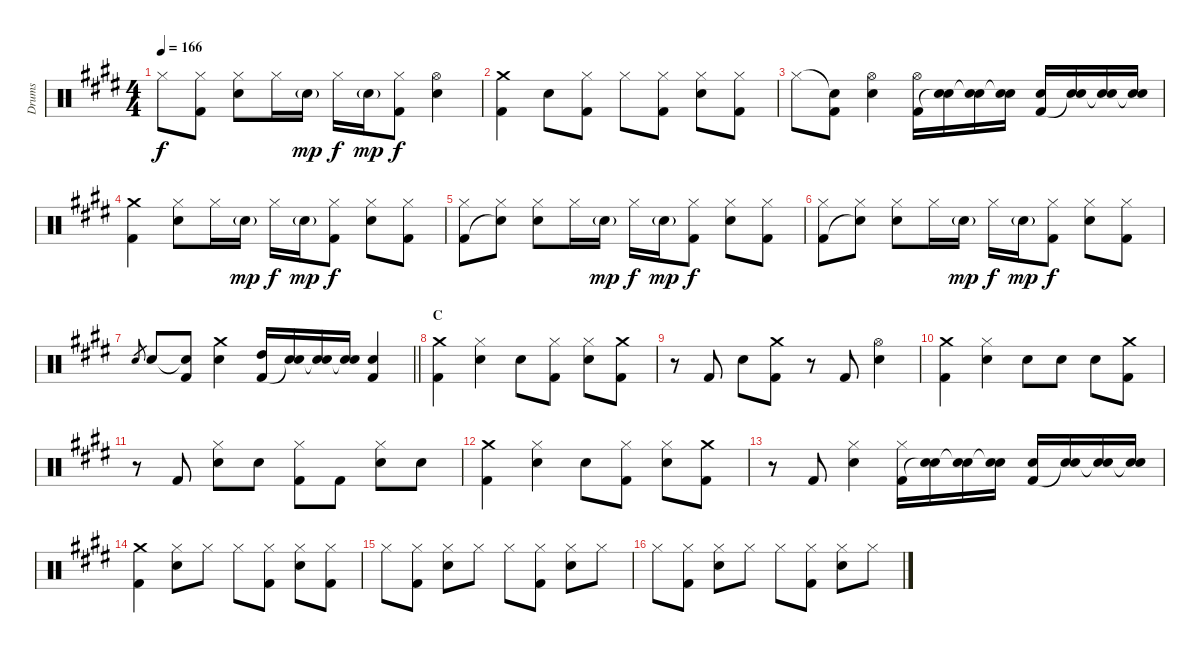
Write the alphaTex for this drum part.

\track ("Drums" "Drums") {instrument percussion}
\staff {score}
\articulation defaults
\ts (4 4)
\tempo 166
\clef neutral
\ks e "Hi-Hat (closed)".8{dy f}
("Hi-Hat (closed)" "Kick (hit) 2").8 ("Hi-Hat (closed)" "Snare (hit) 2").8 "Hi-Hat (closed)".16 "Snare (hit) 2"{g}.16{dy mp} "Hi-Hat (closed)".16{dy f} "Snare (hit) 2"{g}.16{dy mp} ("Hi-Hat (closed)" "Kick (hit) 2").8{dy f} ("Hi-Hat (open)" "Snare (hit) 2").4 |
("Crash medium (hit)" "Kick (hit) 2").4 "Snare (hit) 2".8 ("Hi-Hat (closed)" "Kick (hit) 2").8 "Hi-Hat (closed)".8 ("Hi-Hat (closed)" "Kick (hit) 2").8 ("Hi-Hat (closed)" "Snare (hit) 2").8 ("Hi-Hat (closed)" "Kick (hit) 2").8 |
"Hi-Hat (closed)".8 ("Snare (hit)"{t} "Kick (hit) 2").8 ("Hi-Hat (open)" "Snare (hit) 2").4 ("Hi-Hat (open)" "Kick (hit) 2").16 ("Snare (hit) 2" "Snare (hit)"{t}).16 ("Snare (hit) 2" "Snare (hit)"{t}).16 ("Snare (hit) 2" "Snare (hit)"{t}).16 ("Snare (hit) 2" "Kick (hit) 2").16 ("Snare (hit) 2" "Snare (hit)"{t}).16 ("Snare (hit) 2" "Snare (hit)"{t}).16 ("Snare (hit) 2" "Snare (hit)"{t}).16 |
("Crash medium (hit)" "Kick (hit) 2").4 ("Hi-Hat (closed)" "Snare (hit) 2").8 "Hi-Hat (closed)".16 "Snare (hit) 2"{g}.16{dy mp} "Hi-Hat (closed)".16{dy f} "Snare (hit) 2"{g}.16{dy mp} ("Hi-Hat (closed)" "Kick (hit) 2").8{dy f} ("Hi-Hat (closed)" "Snare (hit) 2").8 ("Hi-Hat (closed)" "Kick (hit) 2").8 |
("Hi-Hat (closed)" "Kick (hit) 2").8 ("Hi-Hat (closed)" "Snare (hit)"{t}).8 ("Hi-Hat (closed)" "Snare (hit) 2").8 "Hi-Hat (closed)".16 "Snare (hit) 2"{g}.16{dy mp} "Hi-Hat (closed)".16{dy f} "Snare (hit) 2"{g}.16{dy mp} ("Hi-Hat (closed)" "Kick (hit) 2").8{dy f} ("Hi-Hat (closed)" "Snare (hit) 2").8 ("Hi-Hat (closed)" "Kick (hit) 2").8 |
("Hi-Hat (closed)" "Kick (hit) 2").8 ("Hi-Hat (closed)" "Snare (hit)"{t}).8 ("Hi-Hat (closed)" "Snare (hit) 2").8 "Hi-Hat (closed)".16 "Snare (hit) 2"{g}.16{dy mp} "Hi-Hat (closed)".16{dy f} "Snare (hit) 2"{g}.16{dy mp} ("Hi-Hat (closed)" "Kick (hit) 2").8{dy f} ("Hi-Hat (closed)" "Snare (hit) 2").8 ("Hi-Hat (closed)" "Kick (hit) 2").8 |
\barLineRight lightlight "Snare (hit) 2".8{gr} "Snare (hit) 2".8
("Snare (hit)"{t} "Kick (hit) 2").8 ("Crash medium (hit)" "Snare (hit) 2").4 ("High Tom (hit)" "Kick (hit) 2").16 ("Snare (hit) 2" "Snare (hit)"{t}).16 ("Snare (hit) 2" "Snare (hit)"{t}).16 ("Snare (hit) 2" "Snare (hit)"{t}).16 ("Snare (hit) 2" "Kick (hit) 2").4 |
\section ("" "C")
("Crash medium (hit)" "Kick (hit) 2").4 ("Hi-Hat (closed)" "Snare (hit) 2").4 "Snare (hit) 2".8 ("Hi-Hat (closed)" "Kick (hit) 2").8 ("Hi-Hat (closed)" "Snare (hit) 2").8 ("Crash medium (hit)" "Kick (hit) 2").8 |
r.8 "Kick (hit) 2".8 "Snare (hit) 2".8 ("Crash medium (hit)" "Kick (hit) 2").8 r.8 "Kick (hit) 2".8 ("Hi-Hat (open)" "Snare (hit) 2").4 |
("Crash medium (hit)" "Kick (hit) 2").4 ("Hi-Hat (closed)" "Snare (hit) 2").4 "Snare (hit) 2".8 "Snare (hit) 2".8 "Snare (hit) 2".8 ("Crash medium (hit)" "Kick (hit) 2").8 |
r.8 "Kick (hit) 2".8 ("Hi-Hat (closed)" "Snare (hit) 2").8 "Snare (hit) 2".8 ("Hi-Hat (closed)" "Kick (hit) 2").8 "Kick (hit) 2".8 ("Hi-Hat (closed)" "Snare (hit) 2").8 "Snare (hit) 2".8 |
("Crash medium (hit)" "Kick (hit) 2").4 ("Hi-Hat (closed)" "Snare (hit) 2").4 "Snare (hit) 2".8 ("Hi-Hat (closed)" "Kick (hit) 2").8 ("Hi-Hat (closed)" "Snare (hit) 2").8 ("Crash medium (hit)" "Kick (hit) 2").8 |
r.8 "Kick (hit) 2".8 ("Hi-Hat (closed)" "Snare (hit) 2").4 ("Hi-Hat (closed)" "Kick (hit) 2").16 ("Snare (hit) 2" "Snare (hit)"{t}).16 ("Snare (hit) 2" "Snare (hit)"{t}).16 ("Snare (hit) 2" "Snare (hit)"{t}).16 ("Snare (hit) 2" "Kick (hit) 2").16 ("Snare (hit) 2" "Snare (hit)"{t}).16 ("Snare (hit) 2" "Snare (hit)"{t}).16 ("Snare (hit) 2" "Snare (hit)"{t}).16 |
("Crash medium (hit)" "Kick (hit) 2").4 ("Hi-Hat (closed)" "Snare (hit) 2").8 "Hi-Hat (closed)".8 "Hi-Hat (closed)".8 ("Hi-Hat (closed)" "Kick (hit) 2").8 ("Hi-Hat (closed)" "Snare (hit) 2").8 ("Hi-Hat (closed)" "Kick (hit) 2").8 |
"Hi-Hat (closed)".8 ("Hi-Hat (closed)" "Kick (hit) 2").8 ("Hi-Hat (closed)" "Snare (hit) 2").8 "Hi-Hat (closed)".8 "Hi-Hat (closed)".8 ("Hi-Hat (closed)" "Kick (hit) 2").8 ("Hi-Hat (closed)" "Snare (hit) 2").8 "Hi-Hat (closed)".8 |
"Hi-Hat (closed)".8 ("Hi-Hat (closed)" "Kick (hit) 2").8 ("Hi-Hat (closed)" "Snare (hit) 2").8 "Hi-Hat (closed)".8 "Hi-Hat (closed)".8 ("Hi-Hat (closed)" "Kick (hit) 2").8 ("Hi-Hat (closed)" "Snare (hit) 2").8 "Hi-Hat (closed)".8
